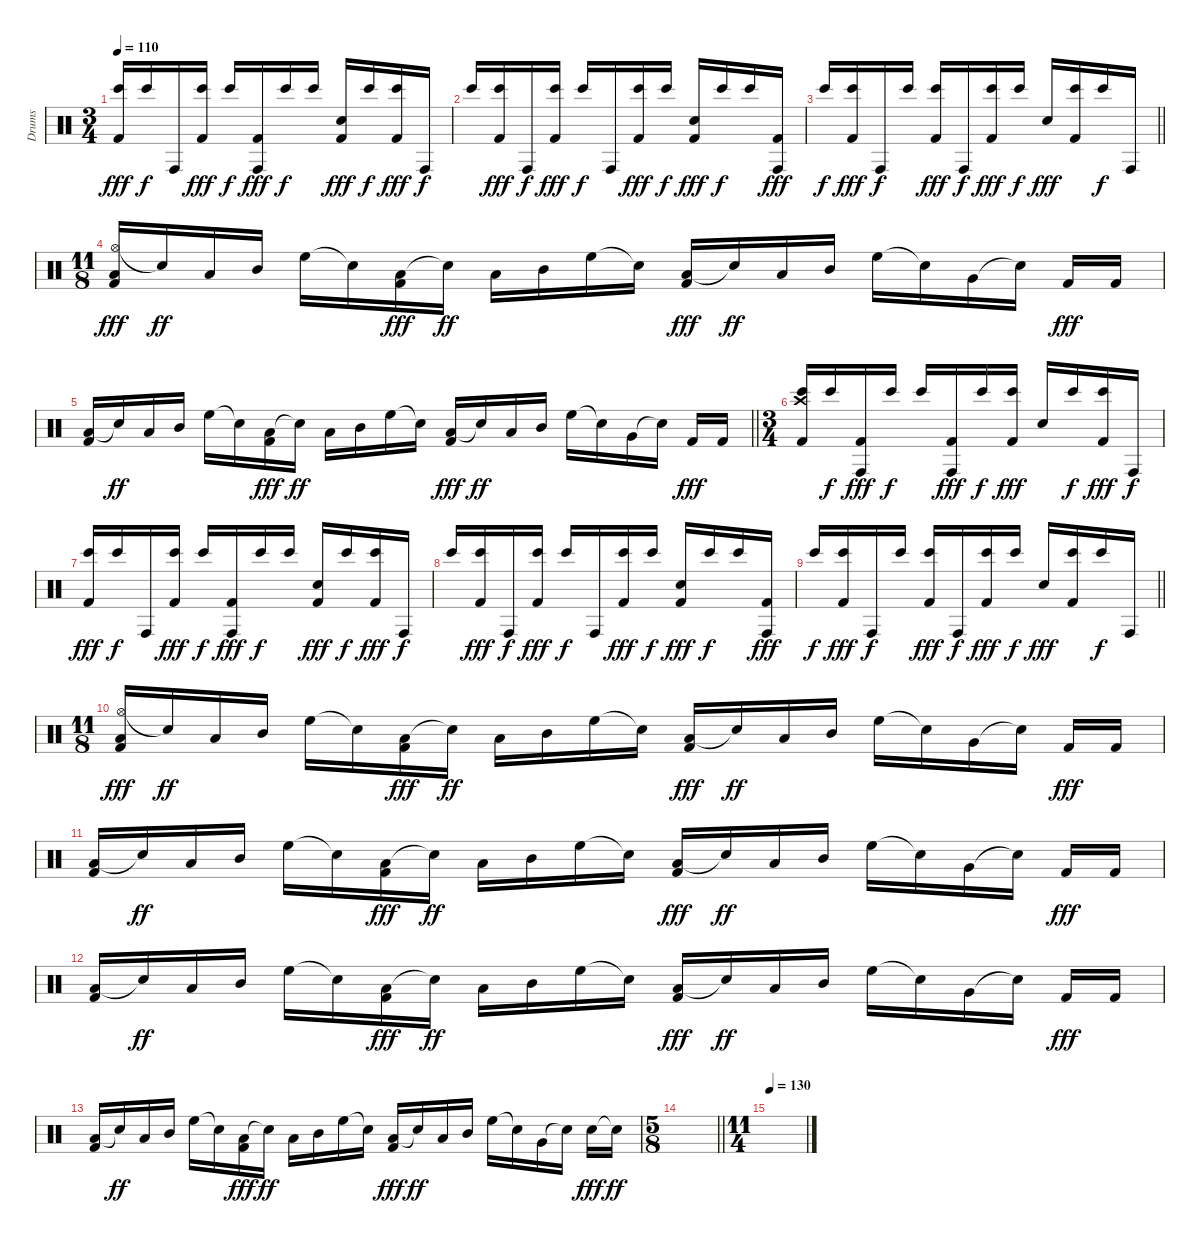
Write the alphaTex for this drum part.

\track ("Drums" "Drums") {instrument percussion}
\staff {score}
\articulation defaults
\ts (3 4)
\tempo 110
\clef neutral
\ks c
("Bongo High (hit)" "Kick (hit) 2").16{dy fff} "Bongo High (hit)".16{dy f} "Conga high (hit)".16 ("Bongo High (hit)" "Kick (hit) 2").16{dy fff} "Bongo High (hit)".16{dy f} ("Conga high (hit)" "Kick (hit) 2").16{dy fff} "Bongo High (hit)".16{dy f} "Bongo High (hit)".16 ("Snare (hit) 2" "Kick (hit) 2").16{dy fff} "Bongo High (hit)".16{dy f} ("Bongo High (hit)" "Kick (hit) 2").16{dy fff} "Conga high (hit)".16{dy f} |
"Bongo High (hit)".16 ("Bongo High (hit)" "Kick (hit) 2").16{dy fff} "Conga high (hit)".16{dy f} ("Bongo High (hit)" "Kick (hit) 2").16{dy fff} "Bongo High (hit)".16{dy f} "Conga high (hit)".16 ("Bongo High (hit)" "Kick (hit) 2").16{dy fff} "Bongo High (hit)".16{dy f} ("Snare (hit) 2" "Kick (hit) 2").16{dy fff} "Bongo High (hit)".16{dy f} "Bongo High (hit)".16 ("Conga high (hit)" "Kick (hit) 2").16{dy fff} |
\barLineRight lightlight "Bongo High (hit)".16{dy f}
("Bongo High (hit)" "Kick (hit) 2").16{dy fff} "Conga high (hit)".16{dy f} "Bongo High (hit)".16 ("Bongo High (hit)" "Kick (hit) 2").16{dy fff} "Conga high (hit)".16{dy f} ("Bongo High (hit)" "Kick (hit) 2").16{dy fff} "Bongo High (hit)".16{dy f} "Snare (hit) 2".16{dy fff} ("Bongo High (hit)" "Kick (hit) 2").16 "Bongo High (hit)".16{dy f} "Conga high (hit)".16 |
\ts (11 8)
\section ("" "")
("Hi-Hat (open)" "Low Tom (hit)" "Kick (hit) 2").16{dy fff} "Snare (hit)"{t}.16{dy ff} "Low Tom (hit)".16 "Mid Tom (hit)".16 "High Floor Tom (hit)".16 "Snare (hit)"{t}.16 ("Low Tom (hit)" "Kick (hit) 2").16{dy fff} "Snare (hit)"{t}.16{dy ff} "Low Tom (hit)".16 "Mid Tom (hit)".16 "High Floor Tom (hit)".16 "Snare (hit)"{t}.16 ("Low Tom (hit)" "Kick (hit) 2").16{dy fff} "Snare (hit)"{t}.16{dy ff} "Low Tom (hit)".16 "Mid Tom (hit)".16 "High Floor Tom (hit)".16 "Snare (hit)"{t}.16 "Very Low Tom (hit)".16 "Snare (hit)"{t}.16 "Kick (hit) 2".16{dy fff} "Kick (hit) 2".16 |
\barLineRight lightlight
("Low Tom (hit)" "Kick (hit) 2").16 "Snare (hit)"{t}.16{dy ff} "Low Tom (hit)".16 "Mid Tom (hit)".16 "High Floor Tom (hit)".16 "Snare (hit)"{t}.16 ("Low Tom (hit)" "Kick (hit) 2").16{dy fff} "Snare (hit)"{t}.16{dy ff} "Low Tom (hit)".16 "Mid Tom (hit)".16 "High Floor Tom (hit)".16 "Snare (hit)"{t}.16 ("Low Tom (hit)" "Kick (hit) 2").16{dy fff} "Snare (hit)"{t}.16{dy ff} "Low Tom (hit)".16 "Mid Tom (hit)".16 "High Floor Tom (hit)".16 "Snare (hit)"{t}.16 "Very Low Tom (hit)".16 "Snare (hit)"{t}.16 "Kick (hit) 2".16{dy fff} "Kick (hit) 2".16 |
\ts (3 4)
\section ("" "")
("Crash high (hit)" "Bongo High (hit)" "Kick (hit) 2").16 "Bongo High (hit)".16{dy f} ("Conga high (hit)" "Kick (hit) 2").16{dy fff} "Bongo High (hit)".16{dy f} "Bongo High (hit)".16 ("Conga high (hit)" "Kick (hit) 2").16{dy fff} "Bongo High (hit)".16{dy f} ("Bongo High (hit)" "Kick (hit) 2").16{dy fff} "Snare (hit) 2".16 "Bongo High (hit)".16{dy f} ("Bongo High (hit)" "Kick (hit) 2").16{dy fff} "Conga high (hit)".16{dy f} |
("Bongo High (hit)" "Kick (hit) 2").16{dy fff} "Bongo High (hit)".16{dy f} "Conga high (hit)".16 ("Bongo High (hit)" "Kick (hit) 2").16{dy fff} "Bongo High (hit)".16{dy f} ("Conga high (hit)" "Kick (hit) 2").16{dy fff} "Bongo High (hit)".16{dy f} "Bongo High (hit)".16 ("Snare (hit) 2" "Kick (hit) 2").16{dy fff} "Bongo High (hit)".16{dy f} ("Bongo High (hit)" "Kick (hit) 2").16{dy fff} "Conga high (hit)".16{dy f} |
"Bongo High (hit)".16 ("Bongo High (hit)" "Kick (hit) 2").16{dy fff} "Conga high (hit)".16{dy f} ("Bongo High (hit)" "Kick (hit) 2").16{dy fff} "Bongo High (hit)".16{dy f} "Conga high (hit)".16 ("Bongo High (hit)" "Kick (hit) 2").16{dy fff} "Bongo High (hit)".16{dy f} ("Snare (hit) 2" "Kick (hit) 2").16{dy fff} "Bongo High (hit)".16{dy f} "Bongo High (hit)".16 ("Conga high (hit)" "Kick (hit) 2").16{dy fff} |
\barLineRight lightlight "Bongo High (hit)".16{dy f}
("Bongo High (hit)" "Kick (hit) 2").16{dy fff} "Conga high (hit)".16{dy f} "Bongo High (hit)".16 ("Bongo High (hit)" "Kick (hit) 2").16{dy fff} "Conga high (hit)".16{dy f} ("Bongo High (hit)" "Kick (hit) 2").16{dy fff} "Bongo High (hit)".16{dy f} "Snare (hit) 2".16{dy fff} ("Bongo High (hit)" "Kick (hit) 2").16 "Bongo High (hit)".16{dy f} "Conga high (hit)".16 |
\ts (11 8)
\section ("" "")
("Hi-Hat (open)" "Low Tom (hit)" "Kick (hit) 2").16{dy fff} "Snare (hit)"{t}.16{dy ff} "Low Tom (hit)".16 "Mid Tom (hit)".16 "High Floor Tom (hit)".16 "Snare (hit)"{t}.16 ("Low Tom (hit)" "Kick (hit) 2").16{dy fff} "Snare (hit)"{t}.16{dy ff} "Low Tom (hit)".16 "Mid Tom (hit)".16 "High Floor Tom (hit)".16 "Snare (hit)"{t}.16 ("Low Tom (hit)" "Kick (hit) 2").16{dy fff} "Snare (hit)"{t}.16{dy ff} "Low Tom (hit)".16 "Mid Tom (hit)".16 "High Floor Tom (hit)".16 "Snare (hit)"{t}.16 "Very Low Tom (hit)".16 "Snare (hit)"{t}.16 "Kick (hit) 2".16{dy fff} "Kick (hit) 2".16 |
("Low Tom (hit)" "Kick (hit) 2").16 "Snare (hit)"{t}.16{dy ff} "Low Tom (hit)".16 "Mid Tom (hit)".16 "High Floor Tom (hit)".16 "Snare (hit)"{t}.16 ("Low Tom (hit)" "Kick (hit) 2").16{dy fff} "Snare (hit)"{t}.16{dy ff} "Low Tom (hit)".16 "Mid Tom (hit)".16 "High Floor Tom (hit)".16 "Snare (hit)"{t}.16 ("Low Tom (hit)" "Kick (hit) 2").16{dy fff} "Snare (hit)"{t}.16{dy ff} "Low Tom (hit)".16 "Mid Tom (hit)".16 "High Floor Tom (hit)".16 "Snare (hit)"{t}.16 "Very Low Tom (hit)".16 "Snare (hit)"{t}.16 "Kick (hit) 2".16{dy fff} "Kick (hit) 2".16 |
("Low Tom (hit)" "Kick (hit) 2").16 "Snare (hit)"{t}.16{dy ff} "Low Tom (hit)".16 "Mid Tom (hit)".16 "High Floor Tom (hit)".16 "Snare (hit)"{t}.16 ("Low Tom (hit)" "Kick (hit) 2").16{dy fff} "Snare (hit)"{t}.16{dy ff} "Low Tom (hit)".16 "Mid Tom (hit)".16 "High Floor Tom (hit)".16 "Snare (hit)"{t}.16 ("Low Tom (hit)" "Kick (hit) 2").16{dy fff} "Snare (hit)"{t}.16{dy ff} "Low Tom (hit)".16 "Mid Tom (hit)".16 "High Floor Tom (hit)".16 "Snare (hit)"{t}.16 "Very Low Tom (hit)".16 "Snare (hit)"{t}.16 "Kick (hit) 2".16{dy fff} "Kick (hit) 2".16 |
("Low Tom (hit)" "Kick (hit) 2").16 "Snare (hit)"{t}.16{dy ff} "Low Tom (hit)".16 "Mid Tom (hit)".16 "High Floor Tom (hit)".16 "Snare (hit)"{t}.16 ("Low Tom (hit)" "Kick (hit) 2").16{dy fff} "Snare (hit)"{t}.16{dy ff} "Low Tom (hit)".16 "Mid Tom (hit)".16 "High Floor Tom (hit)".16 "Snare (hit)"{t}.16 ("Low Tom (hit)" "Kick (hit) 2").16{dy fff} "Snare (hit)"{t}.16{dy ff} "Low Tom (hit)".16 "Mid Tom (hit)".16 "High Floor Tom (hit)".16 "Snare (hit)"{t}.16 "Very Low Tom (hit)".16 "Snare (hit)"{t}.16 "Snare (hit) 2".16{dy fff} "Snare (hit)"{t}.16{dy ff} |
\ts (5 8)
\barLineRight lightlight
|
\ts (11 4)
\section ("" "")
\tempo 130
